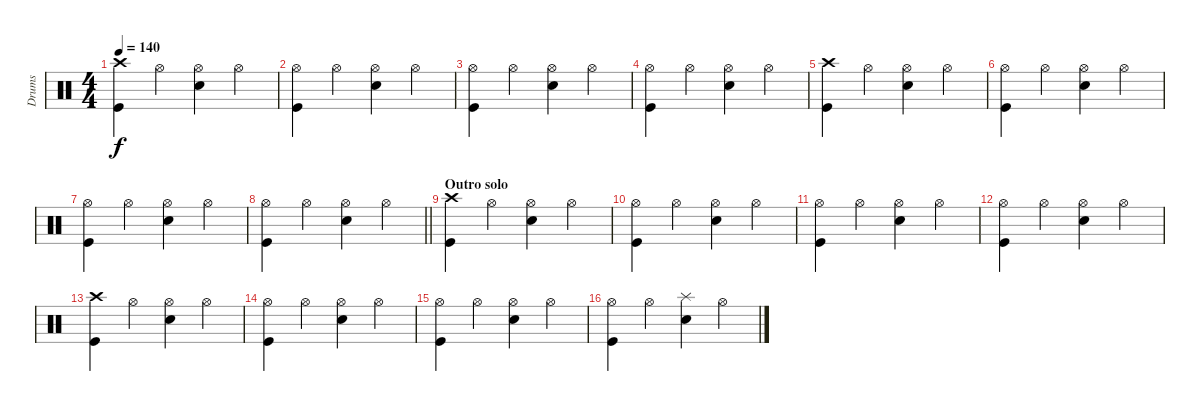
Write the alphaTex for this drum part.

\track ("Drums" "Drums") {instrument percussion}
\staff {score}
\articulation defaults
\ts (4 4)
\tempo 140
\clef neutral
\ks c
("Crash high (hit)" "Kick (hit)").4{dy f} "Hi-Hat (open)".4 ("Hi-Hat (open)" "Electric Snare (hit)").4 "Hi-Hat (open)".4 |
("Hi-Hat (open)" "Kick (hit)").4 "Hi-Hat (open)".4 ("Hi-Hat (open)" "Electric Snare (hit)").4 "Hi-Hat (open)".4 |
("Hi-Hat (open)" "Kick (hit)").4 "Hi-Hat (open)".4 ("Hi-Hat (open)" "Electric Snare (hit)").4 "Hi-Hat (open)".4 |
("Hi-Hat (open)" "Kick (hit)").4 "Hi-Hat (open)".4 ("Hi-Hat (open)" "Electric Snare (hit)").4 "Hi-Hat (open)".4 |
("Crash high (hit)" "Kick (hit)").4 "Hi-Hat (open)".4 ("Hi-Hat (open)" "Electric Snare (hit)").4 "Hi-Hat (open)".4 |
("Hi-Hat (open)" "Kick (hit)").4 "Hi-Hat (open)".4 ("Hi-Hat (open)" "Electric Snare (hit)").4 "Hi-Hat (open)".4 |
("Hi-Hat (open)" "Kick (hit)").4 "Hi-Hat (open)".4 ("Hi-Hat (open)" "Electric Snare (hit)").4 "Hi-Hat (open)".4 |
\barLineRight lightlight
("Hi-Hat (open)" "Kick (hit)").4 "Hi-Hat (open)".4 ("Hi-Hat (open)" "Electric Snare (hit)").4 "Hi-Hat (open)".4 |
\section ("" "Outro solo")
("Crash high (hit)" "Kick (hit)").4 "Hi-Hat (open)".4 ("Hi-Hat (open)" "Electric Snare (hit)").4 "Hi-Hat (open)".4 |
("Hi-Hat (open)" "Kick (hit)").4 "Hi-Hat (open)".4 ("Hi-Hat (open)" "Electric Snare (hit)").4 "Hi-Hat (open)".4 |
("Hi-Hat (open)" "Kick (hit)").4 "Hi-Hat (open)".4 ("Hi-Hat (open)" "Electric Snare (hit)").4 "Hi-Hat (open)".4 |
("Hi-Hat (open)" "Kick (hit)").4{volume 13} "Hi-Hat (open)".4 ("Hi-Hat (open)" "Electric Snare (hit)").4 "Hi-Hat (open)".4 |
("Crash high (hit)" "Kick (hit)").4{volume 12} "Hi-Hat (open)".4 ("Hi-Hat (open)" "Electric Snare (hit)").4 "Hi-Hat (open)".4 |
("Hi-Hat (open)" "Kick (hit)").4{volume 11} "Hi-Hat (open)".4 ("Hi-Hat (open)" "Electric Snare (hit)").4 "Hi-Hat (open)".4 |
("Hi-Hat (open)" "Kick (hit)").4{volume 10} "Hi-Hat (open)".4 ("Hi-Hat (open)" "Electric Snare (hit)").4 "Hi-Hat (open)".4 |
("Hi-Hat (open)" "Kick (hit)").4{volume 8} "Hi-Hat (open)".4 ("Splash (hit)" "Electric Snare (hit)").4 "Hi-Hat (open)".4
